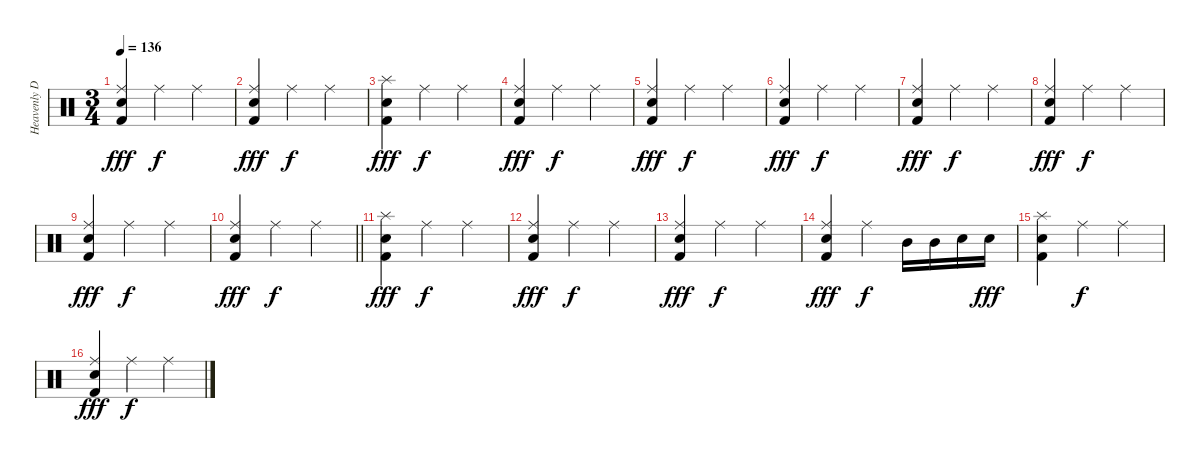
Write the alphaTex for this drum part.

\track ("Heavenly Drums" "Heavenly D") {instrument percussion}
\staff {score}
\articulation defaults
\ts (3 4)
\tempo 136
\clef neutral
\ks c
("Snare (hit) 2" "Ride (middle)" "Kick (hit) 2").4{dy fff} "Ride (middle)".4{dy f} "Ride (middle)".4 |
("Snare (hit) 2" "Ride (middle)" "Kick (hit) 2").4{dy fff} "Ride (middle)".4{dy f} "Ride (middle)".4 |
("Splash (hit)" "Snare (hit) 2" "Kick (hit) 2").4{dy fff} "Ride (middle)".4{dy f} "Ride (middle)".4 |
("Snare (hit) 2" "Ride (middle)" "Kick (hit) 2").4{dy fff} "Ride (middle)".4{dy f} "Ride (middle)".4 |
("Snare (hit) 2" "Ride (middle)" "Kick (hit) 2").4{dy fff} "Ride (middle)".4{dy f} "Ride (middle)".4 |
("Snare (hit) 2" "Ride (middle)" "Kick (hit) 2").4{dy fff} "Ride (middle)".4{dy f} "Ride (middle)".4 |
("Snare (hit) 2" "Ride (middle)" "Kick (hit) 2").4{dy fff} "Ride (middle)".4{dy f} "Ride (middle)".4 |
("Snare (hit) 2" "Ride (middle)" "Kick (hit) 2").4{dy fff} "Ride (middle)".4{dy f} "Ride (middle)".4 |
("Snare (hit) 2" "Ride (middle)" "Kick (hit) 2").4{dy fff} "Ride (middle)".4{dy f} "Ride (middle)".4 |
\barLineRight lightlight
("Snare (hit) 2" "Ride (middle)" "Kick (hit) 2").4{dy fff} "Ride (middle)".4{dy f} "Ride (middle)".4 |
("Splash (hit)" "Snare (hit) 2" "Kick (hit) 2").4{dy fff} "Ride (middle)".4{dy f} "Ride (middle)".4 |
("Snare (hit) 2" "Ride (middle)" "Kick (hit) 2").4{dy fff} "Ride (middle)".4{dy f} "Ride (middle)".4 |
("Snare (hit) 2" "Ride (middle)" "Kick (hit) 2").4{dy fff} "Ride (middle)".4{dy f} "Ride (middle)".4 |
("Snare (hit) 2" "Ride (middle)" "Kick (hit) 2").4{dy fff} "Ride (middle)".4{dy f} "Mid Tom (hit)".16 "Mid Tom (hit)".16 "Electric Snare (hit)".16 "Electric Snare (hit)".16{dy fff} |
("Splash (hit)" "Snare (hit) 2" "Kick (hit) 2").4 "Ride (middle)".4{dy f} "Ride (middle)".4 |
("Snare (hit) 2" "Ride (middle)" "Kick (hit) 2").4{dy fff} "Ride (middle)".4{dy f} "Ride (middle)".4
